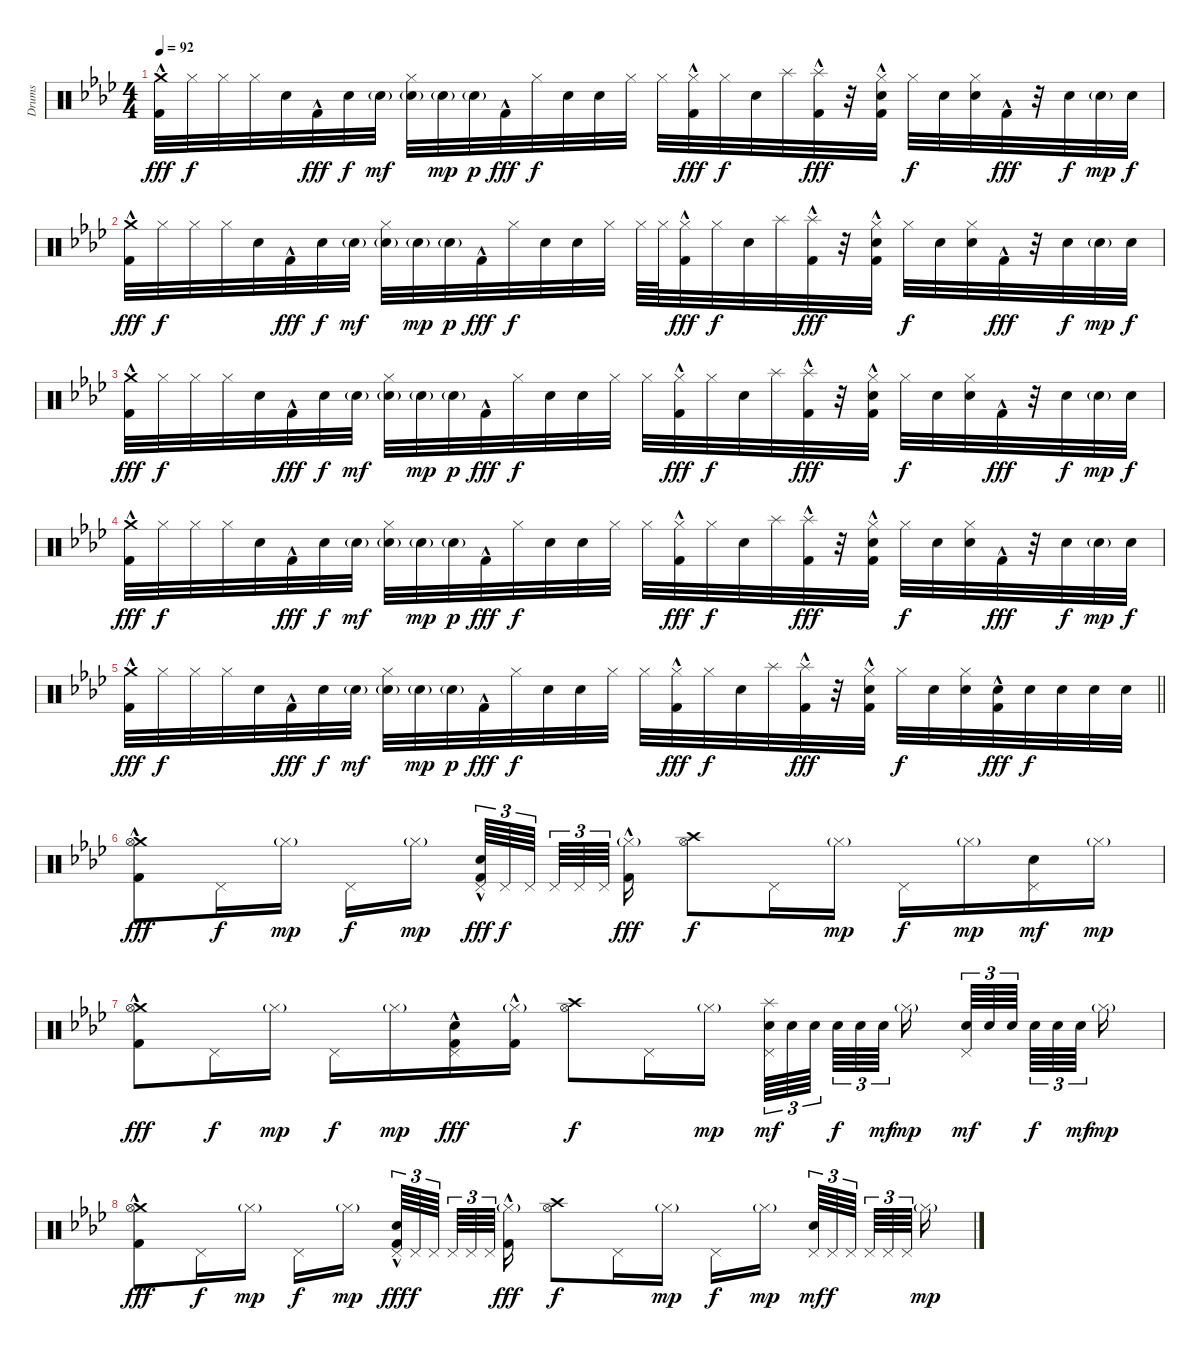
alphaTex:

\track ("Drums" "Drums") {instrument percussion}
\staff {score}
\articulation defaults
\ts (4 4)
\tempo 92
\clef neutral
\ks fminor
("Crash medium (hit)" "Kick (hit) 2"{hac}).32{dy fff} "Hi-Hat (closed)".32{dy f} "Hi-Hat (closed)".32 "Hi-Hat (closed)".32 "Snare (hit) 2".32 "Kick (hit) 2"{hac}.32{dy fff} "Snare (hit) 2".32{dy f} "Snare (hit) 2"{g}.32{dy mf} ("Hi-Hat (closed)" "Snare (hit) 2"{g}).32 "Snare (hit) 2"{g}.32{dy mp} "Snare (hit) 2"{g}.32{dy p} "Kick (hit) 2"{hac}.32{dy fff} "Hi-Hat (closed)".32{dy f} "Snare (hit) 2".32 "Snare (hit) 2".32 "Hi-Hat (closed)".32 "Hi-Hat (closed)".32 ("Hi-Hat (closed)" "Kick (hit) 2"{hac}).32{dy fff} "Hi-Hat (closed)".32{dy f} "Snare (hit) 2".32 "Splash (hit)".32 ("Splash (hit)" "Kick (hit) 2"{hac}).32{dy fff} r.32 ("Hi-Hat (closed)" "Snare (hit) 2" "Kick (hit) 2"{hac}).32 "Hi-Hat (closed)".32{dy f} "Snare (hit) 2".32 ("Hi-Hat (closed)" "Snare (hit) 2").32 "Kick (hit) 2"{hac}.32{dy fff} r.32 "Snare (hit) 2".32{dy f} "Snare (hit) 2"{g}.32{dy mp} "Snare (hit) 2".32{dy f} |
("Crash medium (hit)" "Kick (hit) 2"{hac}).32{dy fff} "Hi-Hat (closed)".32{dy f} "Hi-Hat (closed)".32 "Hi-Hat (closed)".32 "Snare (hit) 2".32 "Kick (hit) 2"{hac}.32{dy fff} "Snare (hit) 2".32{dy f} "Snare (hit) 2"{g}.32{dy mf} ("Hi-Hat (closed)" "Snare (hit) 2"{g}).32 "Snare (hit) 2"{g}.32{dy mp} "Snare (hit) 2"{g}.32{dy p} "Kick (hit) 2"{hac}.32{dy fff} "Hi-Hat (closed)".32{dy f} "Snare (hit) 2".32 "Snare (hit) 2".32 "Hi-Hat (closed)".32 "Hi-Hat (closed)".64 "Hi-Hat (closed)".64 ("Hi-Hat (closed)" "Kick (hit) 2"{hac}).32{dy fff} "Hi-Hat (closed)".32{dy f} "Snare (hit) 2".32 "Splash (hit)".32 ("Splash (hit)" "Kick (hit) 2"{hac}).32{dy fff} r.32 ("Hi-Hat (closed)" "Snare (hit) 2" "Kick (hit) 2"{hac}).32 "Hi-Hat (closed)".32{dy f} "Snare (hit) 2".32 ("Hi-Hat (closed)" "Snare (hit) 2").32 "Kick (hit) 2"{hac}.32{dy fff} r.32 "Snare (hit) 2".32{dy f} "Snare (hit) 2"{g}.32{dy mp} "Snare (hit) 2".32{dy f} |
("Crash medium (hit)" "Kick (hit) 2"{hac}).32{dy fff} "Hi-Hat (closed)".32{dy f} "Hi-Hat (closed)".32 "Hi-Hat (closed)".32 "Snare (hit) 2".32 "Kick (hit) 2"{hac}.32{dy fff} "Snare (hit) 2".32{dy f} "Snare (hit) 2"{g}.32{dy mf} ("Hi-Hat (closed)" "Snare (hit) 2"{g}).32 "Snare (hit) 2"{g}.32{dy mp} "Snare (hit) 2"{g}.32{dy p} "Kick (hit) 2"{hac}.32{dy fff} "Hi-Hat (closed)".32{dy f} "Snare (hit) 2".32 "Snare (hit) 2".32 "Hi-Hat (closed)".32 "Hi-Hat (closed)".32 ("Hi-Hat (closed)" "Kick (hit) 2"{hac}).32{dy fff} "Hi-Hat (closed)".32{dy f} "Snare (hit) 2".32 "Splash (hit)".32 ("Splash (hit)" "Kick (hit) 2"{hac}).32{dy fff} r.32 ("Hi-Hat (closed)" "Snare (hit) 2" "Kick (hit) 2"{hac}).32 "Hi-Hat (closed)".32{dy f} "Snare (hit) 2".32 ("Hi-Hat (closed)" "Snare (hit) 2").32 "Kick (hit) 2"{hac}.32{dy fff} r.32 "Snare (hit) 2".32{dy f} "Snare (hit) 2"{g}.32{dy mp} "Snare (hit) 2".32{dy f} |
("Crash medium (hit)" "Kick (hit) 2"{hac}).32{dy fff} "Hi-Hat (closed)".32{dy f} "Hi-Hat (closed)".32 "Hi-Hat (closed)".32 "Snare (hit) 2".32 "Kick (hit) 2"{hac}.32{dy fff} "Snare (hit) 2".32{dy f} "Snare (hit) 2"{g}.32{dy mf} ("Hi-Hat (closed)" "Snare (hit) 2"{g}).32 "Snare (hit) 2"{g}.32{dy mp} "Snare (hit) 2"{g}.32{dy p} "Kick (hit) 2"{hac}.32{dy fff} "Hi-Hat (closed)".32{dy f} "Snare (hit) 2".32 "Snare (hit) 2".32 "Hi-Hat (closed)".32 "Hi-Hat (closed)".32 ("Hi-Hat (closed)" "Kick (hit) 2"{hac}).32{dy fff} "Hi-Hat (closed)".32{dy f} "Snare (hit) 2".32 "Splash (hit)".32 ("Splash (hit)" "Kick (hit) 2"{hac}).32{dy fff} r.32 ("Hi-Hat (closed)" "Snare (hit) 2" "Kick (hit) 2"{hac}).32 "Hi-Hat (closed)".32{dy f} "Snare (hit) 2".32 ("Hi-Hat (closed)" "Snare (hit) 2").32 "Kick (hit) 2"{hac}.32{dy fff} r.32 "Snare (hit) 2".32{dy f} "Snare (hit) 2"{g}.32{dy mp} "Snare (hit) 2".32{dy f} |
\barLineRight lightlight
("Crash medium (hit)" "Kick (hit) 2"{hac}).32{dy fff} "Hi-Hat (closed)".32{dy f} "Hi-Hat (closed)".32 "Hi-Hat (closed)".32 "Snare (hit) 2".32 "Kick (hit) 2"{hac}.32{dy fff} "Snare (hit) 2".32{dy f} "Snare (hit) 2"{g}.32{dy mf} ("Hi-Hat (closed)" "Snare (hit) 2"{g}).32 "Snare (hit) 2"{g}.32{dy mp} "Snare (hit) 2"{g}.32{dy p} "Kick (hit) 2"{hac}.32{dy fff} "Hi-Hat (closed)".32{dy f} "Snare (hit) 2".32 "Snare (hit) 2".32 "Hi-Hat (closed)".32 "Hi-Hat (closed)".32 ("Hi-Hat (closed)" "Kick (hit) 2"{hac}).32{dy fff} "Hi-Hat (closed)".32{dy f} "Snare (hit) 2".32 "Splash (hit)".32 ("Splash (hit)" "Kick (hit) 2"{hac}).32{dy fff} r.32 ("Hi-Hat (closed)" "Snare (hit) 2" "Kick (hit) 2"{hac}).32 "Hi-Hat (closed)".32{dy f} "Snare (hit) 2".32 ("Hi-Hat (closed)" "Snare (hit) 2").32 ("Snare (hit) 2" "Kick (hit) 2"{hac}).32{dy fff} "Snare (hit) 2".32{dy f} "Snare (hit) 2".32 "Snare (hit) 2".32 "Snare (hit) 2".32 |
("Crash medium (hit)" "Hi-Hat (open)" "Kick (hit) 2"{hac}).8{dy fff} "Pedal Hi-Hat (hit)".16{dy f} "Hi-Hat (closed)"{g}.16{dy mp} "Pedal Hi-Hat (hit)".16{dy f} "Hi-Hat (closed)"{g}.16{dy mp beam splitsecondary} ("Pedal Hi-Hat (hit)" "Hand Clap (hit)" "Kick (hit) 2"{hac}).64{tu (3 2) dy fff} "Pedal Hi-Hat (hit)".64{tu (3 2) dy f} "Pedal Hi-Hat (hit)".64{tu (3 2) beam splitsecondary} "Pedal Hi-Hat (hit)".64{tu (3 2)} "Pedal Hi-Hat (hit)".64{tu (3 2)} "Pedal Hi-Hat (hit)".64{tu (3 2) beam splitsecondary} ("Hi-Hat (closed)"{g} "Kick (hit) 2"{hac}).16{dy fff} ("Crash high (hit)" "Hi-Hat (open)").8{dy f} "Pedal Hi-Hat (hit)".16 "Hi-Hat (closed)"{g}.16{dy mp} "Pedal Hi-Hat (hit)".16{dy f} "Hi-Hat (closed)"{g}.16{dy mp} ("Pedal Hi-Hat (hit)" "Hand Clap (hit)").16{dy mf} "Hi-Hat (closed)"{g}.16{dy mp} |
("Crash medium (hit)" "Hi-Hat (open)" "Kick (hit) 2"{hac}).8{dy fff} "Pedal Hi-Hat (hit)".16{dy f} "Hi-Hat (closed)"{g}.16{dy mp} "Pedal Hi-Hat (hit)".16{dy f} "Hi-Hat (closed)"{g}.16{dy mp} ("Pedal Hi-Hat (hit)" "Hand Clap (hit)" "Kick (hit) 2"{hac}).16{dy fff} ("Hi-Hat (closed)"{g} "Kick (hit) 2"{hac}).16 ("Crash high (hit)" "Hi-Hat (open)").8{dy f} "Pedal Hi-Hat (hit)".16 "Hi-Hat (closed)"{g}.16{dy mp} ("Splash (hit)" "Pedal Hi-Hat (hit)" "Hand Clap (hit)").64{tu (3 2) dy mf} "Hand Clap (hit)".64{tu (3 2)} "Hand Clap (hit)".64{tu (3 2) beam splitsecondary} "Hand Clap (hit)".64{tu (3 2) dy f} "Hand Clap (hit)".64{tu (3 2)} "Hand Clap (hit)".64{tu (3 2) dy mf beam splitsecondary} "Hi-Hat (closed)"{g}.16{dy mp beam splitsecondary} ("Pedal Hi-Hat (hit)" "Hand Clap (hit)").64{tu (3 2) dy mf} "Hand Clap (hit)".64{tu (3 2)} "Hand Clap (hit)".64{tu (3 2) beam splitsecondary} "Hand Clap (hit)".64{tu (3 2) dy f} "Hand Clap (hit)".64{tu (3 2)} "Hand Clap (hit)".64{tu (3 2) dy mf beam splitsecondary} "Hi-Hat (closed)"{g}.16{dy mp} |
("Crash medium (hit)" "Hi-Hat (open)" "Kick (hit) 2"{hac}).8{dy fff} "Pedal Hi-Hat (hit)".16{dy f} "Hi-Hat (closed)"{g}.16{dy mp} "Pedal Hi-Hat (hit)".16{dy f} "Hi-Hat (closed)"{g}.16{dy mp beam splitsecondary} ("Pedal Hi-Hat (hit)" "Hand Clap (hit)" "Kick (hit) 2"{hac}).64{tu (3 2) dy fff} "Pedal Hi-Hat (hit)".64{tu (3 2) dy f} "Pedal Hi-Hat (hit)".64{tu (3 2) beam splitsecondary} "Pedal Hi-Hat (hit)".64{tu (3 2)} "Pedal Hi-Hat (hit)".64{tu (3 2)} "Pedal Hi-Hat (hit)".64{tu (3 2) beam splitsecondary} ("Hi-Hat (closed)"{g} "Kick (hit) 2"{hac}).16{dy fff} ("Crash high (hit)" "Hi-Hat (open)").8{dy f} "Pedal Hi-Hat (hit)".16 "Hi-Hat (closed)"{g}.16{dy mp} "Pedal Hi-Hat (hit)".16{dy f} "Hi-Hat (closed)"{g}.16{dy mp beam splitsecondary} ("Pedal Hi-Hat (hit)" "Hand Clap (hit)").64{tu (3 2) dy mf} "Pedal Hi-Hat (hit)".64{tu (3 2) dy f} "Pedal Hi-Hat (hit)".64{tu (3 2) beam splitsecondary} "Pedal Hi-Hat (hit)".64{tu (3 2)} "Pedal Hi-Hat (hit)".64{tu (3 2)} "Pedal Hi-Hat (hit)".64{tu (3 2) beam splitsecondary} "Hi-Hat (closed)"{g}.16{dy mp}
